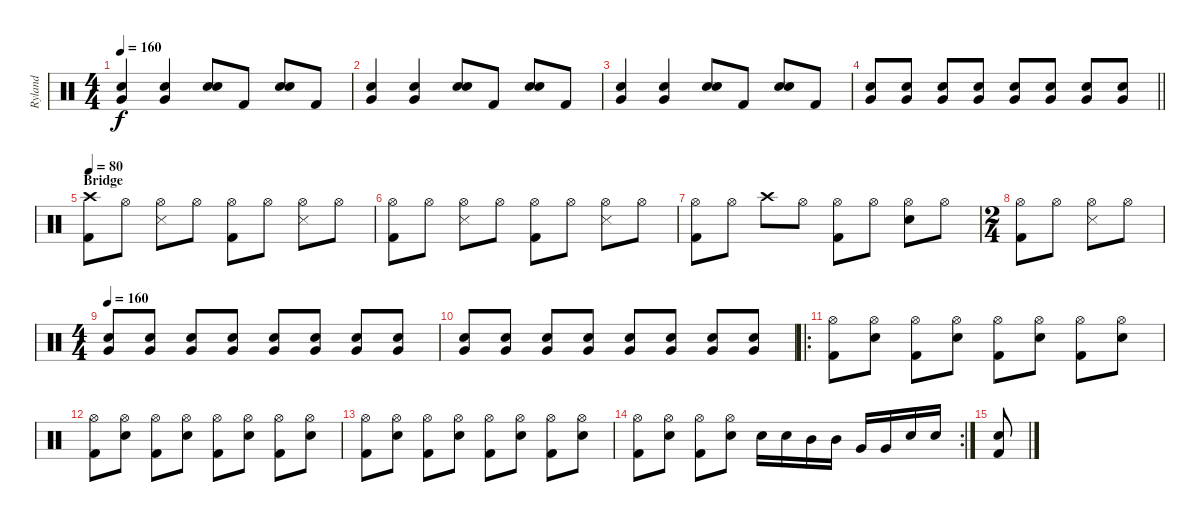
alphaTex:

\track ("Ryland" "Ryland") {instrument percussion}
\staff {score}
\articulation defaults
\ts (4 4)
\tempo 160
\clef neutral
\ks c
("Very Low Tom (hit)" "Electric Snare (hit)").4{dy f} ("Very Low Tom (hit)" "Electric Snare (hit)").4 ("Electric Snare (hit)" "Electric Snare (hit)").8 "Kick (hit) 2".8 ("Electric Snare (hit)" "Electric Snare (hit)").8 "Kick (hit) 2".8 |
("Very Low Tom (hit)" "Electric Snare (hit)").4 ("Very Low Tom (hit)" "Electric Snare (hit)").4 ("Electric Snare (hit)" "Electric Snare (hit)").8 "Kick (hit) 2".8 ("Electric Snare (hit)" "Electric Snare (hit)").8 "Kick (hit) 2".8 |
("Very Low Tom (hit)" "Electric Snare (hit)").4 ("Very Low Tom (hit)" "Electric Snare (hit)").4 ("Electric Snare (hit)" "Electric Snare (hit)").8 "Kick (hit) 2".8 ("Electric Snare (hit)" "Electric Snare (hit)").8 "Kick (hit) 2".8 |
\barLineRight lightlight
("Very Low Tom (hit)" "Electric Snare (hit)").8 ("Very Low Tom (hit)" "Electric Snare (hit)").8 ("Very Low Tom (hit)" "Electric Snare (hit)").8 ("Very Low Tom (hit)" "Electric Snare (hit)").8 ("Very Low Tom (hit)" "Electric Snare (hit)").8 ("Very Low Tom (hit)" "Electric Snare (hit)").8 ("Very Low Tom (hit)" "Electric Snare (hit)").8 ("Very Low Tom (hit)" "Electric Snare (hit)").8 |
\section ("" "Bridge")
\tempo 80
("Crash high (hit)" "Kick (hit) 2").8 "Hi-Hat (open)".8 ("Hi-Hat (open)" "Snare (side stick) 3").8 "Hi-Hat (open)".8 ("Hi-Hat (open)" "Kick (hit) 2").8 "Hi-Hat (open)".8 ("Hi-Hat (open)" "Snare (side stick) 3").8 "Hi-Hat (open)".8 |
("Hi-Hat (open)" "Kick (hit) 2").8 "Hi-Hat (open)".8 ("Hi-Hat (open)" "Snare (side stick) 3").8 "Hi-Hat (open)".8 ("Hi-Hat (open)" "Kick (hit) 2").8 "Hi-Hat (open)".8 ("Hi-Hat (open)" "Snare (side stick) 3").8 "Hi-Hat (open)".8 |
("Hi-Hat (open)" "Kick (hit) 2").8 "Hi-Hat (open)".8 "Crash high (hit)".8 "Hi-Hat (open)".8 ("Hi-Hat (open)" "Kick (hit) 2").8 "Hi-Hat (open)".8 ("Hi-Hat (open)" "Electric Snare (hit)").8 "Hi-Hat (open)".8 |
\ts (2 4)
("Hi-Hat (open)" "Kick (hit) 2").8 "Hi-Hat (open)".8 ("Hi-Hat (open)" "Snare (side stick) 3").8 "Hi-Hat (open)".8 |
\ts (4 4)
\tempo 160
("Very Low Tom (hit)" "Electric Snare (hit)").8 ("Very Low Tom (hit)" "Electric Snare (hit)").8 ("Very Low Tom (hit)" "Electric Snare (hit)").8 ("Very Low Tom (hit)" "Electric Snare (hit)").8 ("Very Low Tom (hit)" "Electric Snare (hit)").8 ("Very Low Tom (hit)" "Electric Snare (hit)").8 ("Very Low Tom (hit)" "Electric Snare (hit)").8 ("Very Low Tom (hit)" "Electric Snare (hit)").8 |
("Very Low Tom (hit)" "Electric Snare (hit)").8 ("Very Low Tom (hit)" "Electric Snare (hit)").8 ("Very Low Tom (hit)" "Electric Snare (hit)").8 ("Very Low Tom (hit)" "Electric Snare (hit)").8 ("Very Low Tom (hit)" "Electric Snare (hit)").8 ("Very Low Tom (hit)" "Electric Snare (hit)").8 ("Very Low Tom (hit)" "Electric Snare (hit)").8 ("Very Low Tom (hit)" "Electric Snare (hit)").8 |
\ro
("Hi-Hat (open)" "Kick (hit) 2").8 ("Hi-Hat (open)" "Electric Snare (hit)").8 ("Hi-Hat (open)" "Kick (hit) 2").8 ("Hi-Hat (open)" "Electric Snare (hit)").8 ("Hi-Hat (open)" "Kick (hit) 2").8 ("Hi-Hat (open)" "Electric Snare (hit)").8 ("Hi-Hat (open)" "Kick (hit) 2").8 ("Hi-Hat (open)" "Electric Snare (hit)").8 |
("Hi-Hat (open)" "Kick (hit) 2").8 ("Hi-Hat (open)" "Electric Snare (hit)").8 ("Hi-Hat (open)" "Kick (hit) 2").8 ("Hi-Hat (open)" "Electric Snare (hit)").8 ("Hi-Hat (open)" "Kick (hit) 2").8 ("Hi-Hat (open)" "Electric Snare (hit)").8 ("Hi-Hat (open)" "Kick (hit) 2").8 ("Hi-Hat (open)" "Electric Snare (hit)").8 |
("Hi-Hat (open)" "Kick (hit) 2").8 ("Hi-Hat (open)" "Electric Snare (hit)").8 ("Hi-Hat (open)" "Kick (hit) 2").8 ("Hi-Hat (open)" "Electric Snare (hit)").8 ("Hi-Hat (open)" "Kick (hit) 2").8 ("Hi-Hat (open)" "Electric Snare (hit)").8 ("Hi-Hat (open)" "Kick (hit) 2").8 ("Hi-Hat (open)" "Electric Snare (hit)").8 |
\rc 2
("Hi-Hat (open)" "Kick (hit) 2").8 ("Hi-Hat (open)" "Electric Snare (hit)").8 ("Hi-Hat (open)" "Kick (hit) 2").8 ("Hi-Hat (open)" "Electric Snare (hit)").8 "Electric Snare (hit)".16 "Electric Snare (hit)".16 "Mid Tom (hit)".16 "Mid Tom (hit)".16 "Very Low Tom (hit)".16 "Very Low Tom (hit)".16 "Electric Snare (hit)".16 "Electric Snare (hit)".16 |
("Electric Snare (hit)" "Kick (hit) 2").8
